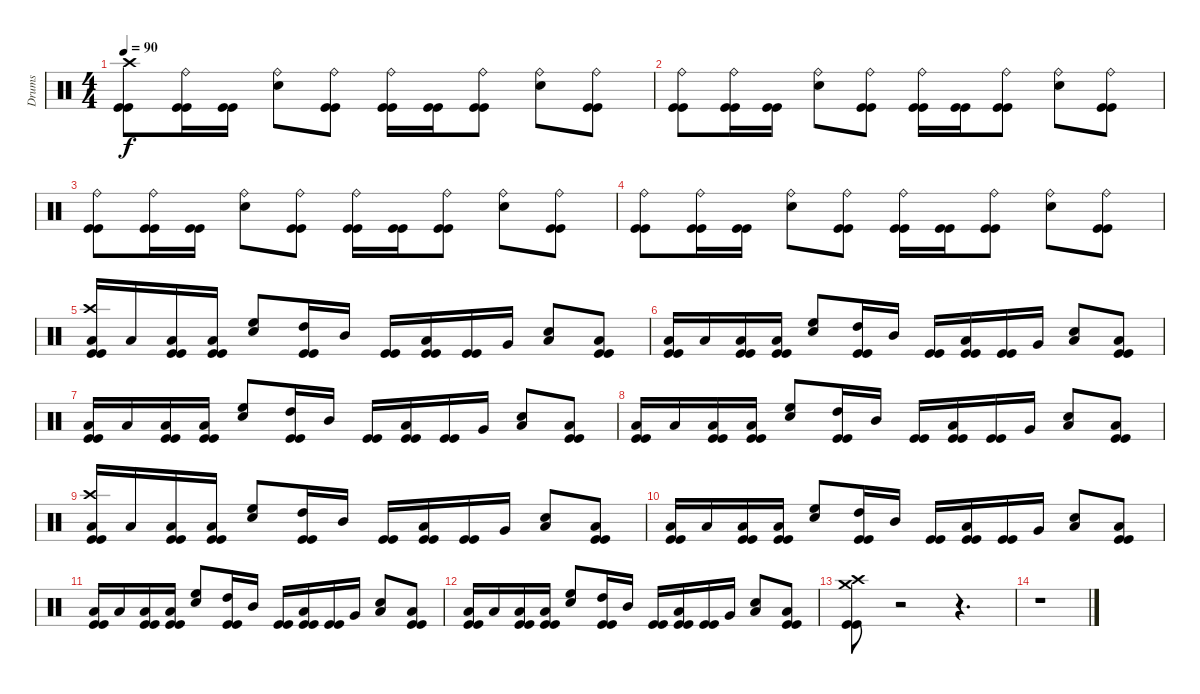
\track ("Drums" "Drums") {instrument percussion}
\staff {score}
\articulation defaults
\ts (4 4)
\tempo 90
\clef neutral
\ks c
("Kick (hit)" "Kick (hit)" "Crash high (hit)").8{dy f} ("Kick (hit)" "Kick (hit)" "Ride (bell)").16 ("Kick (hit)" "Kick (hit)").16 ("Snare (hit) 2" "Ride (bell)").8 ("Kick (hit)" "Kick (hit)" "Ride (bell)").8 ("Kick (hit)" "Kick (hit)" "Ride (bell)").16 ("Kick (hit)" "Kick (hit)").16 ("Kick (hit)" "Kick (hit)" "Ride (bell)").8 ("Snare (hit) 2" "Ride (bell)").8 ("Kick (hit)" "Kick (hit)" "Ride (bell)").8 |
("Kick (hit)" "Kick (hit)" "Ride (bell)").8 ("Kick (hit)" "Kick (hit)" "Ride (bell)").16 ("Kick (hit)" "Kick (hit)").16 ("Snare (hit) 2" "Ride (bell)").8 ("Kick (hit)" "Kick (hit)" "Ride (bell)").8 ("Kick (hit)" "Kick (hit)" "Ride (bell)").16 ("Kick (hit)" "Kick (hit)").16 ("Kick (hit)" "Kick (hit)" "Ride (bell)").8 ("Snare (hit) 2" "Ride (bell)").8 ("Kick (hit)" "Kick (hit)" "Ride (bell)").8 |
("Kick (hit)" "Kick (hit)" "Ride (bell)").8 ("Kick (hit)" "Kick (hit)" "Ride (bell)").16 ("Kick (hit)" "Kick (hit)").16 ("Snare (hit) 2" "Ride (bell)").8 ("Kick (hit)" "Kick (hit)" "Ride (bell)").8 ("Kick (hit)" "Kick (hit)" "Ride (bell)").16 ("Kick (hit)" "Kick (hit)").16 ("Kick (hit)" "Kick (hit)" "Ride (bell)").8 ("Snare (hit) 2" "Ride (bell)").8 ("Kick (hit)" "Kick (hit)" "Ride (bell)").8 |
("Kick (hit)" "Kick (hit)" "Ride (bell)").8 ("Kick (hit)" "Kick (hit)" "Ride (bell)").16 ("Kick (hit)" "Kick (hit)").16 ("Snare (hit) 2" "Ride (bell)").8 ("Kick (hit)" "Kick (hit)" "Ride (bell)").8 ("Kick (hit)" "Kick (hit)" "Ride (bell)").16 ("Kick (hit)" "Kick (hit)").16 ("Kick (hit)" "Kick (hit)" "Ride (bell)").8 ("Snare (hit) 2" "Ride (bell)").8 ("Kick (hit)" "Kick (hit)" "Ride (bell)").8 |
("Kick (hit)" "Kick (hit)" "Low Floor Tom (hit)" "Crash high (hit)").16 "Low Floor Tom (hit)".16 ("Kick (hit)" "Kick (hit)" "Low Floor Tom (hit)").16 ("Kick (hit)" "Kick (hit)" "Low Floor Tom (hit)").16 ("Snare (hit) 2" "High Floor Tom (hit)").8 ("Kick (hit)" "Kick (hit)" "High Tom (hit)").16 "Mid Tom (hit)".16 ("Kick (hit)" "Kick (hit)").16 ("Kick (hit)" "Kick (hit)" "Low Tom (hit)").16 ("Kick (hit)" "Kick (hit)").16 "Very Low Tom (hit)".16 ("Snare (hit) 2" "Low Floor Tom (hit)").8 ("Kick (hit)" "Kick (hit)" "Low Floor Tom (hit)").8 |
("Kick (hit)" "Kick (hit)" "Low Floor Tom (hit)").16 "Low Floor Tom (hit)".16 ("Kick (hit)" "Kick (hit)" "Low Floor Tom (hit)").16 ("Kick (hit)" "Kick (hit)" "Low Floor Tom (hit)").16 ("Snare (hit) 2" "High Floor Tom (hit)").8 ("Kick (hit)" "Kick (hit)" "High Tom (hit)").16 "Mid Tom (hit)".16 ("Kick (hit)" "Kick (hit)").16 ("Kick (hit)" "Kick (hit)" "Low Tom (hit)").16 ("Kick (hit)" "Kick (hit)").16 "Very Low Tom (hit)".16 ("Snare (hit) 2" "Low Floor Tom (hit)").8 ("Kick (hit)" "Kick (hit)" "Low Floor Tom (hit)").8 |
("Kick (hit)" "Kick (hit)" "Low Floor Tom (hit)").16 "Low Floor Tom (hit)".16 ("Kick (hit)" "Kick (hit)" "Low Floor Tom (hit)").16 ("Kick (hit)" "Kick (hit)" "Low Floor Tom (hit)").16 ("Snare (hit) 2" "High Floor Tom (hit)").8 ("Kick (hit)" "Kick (hit)" "High Tom (hit)").16 "Mid Tom (hit)".16 ("Kick (hit)" "Kick (hit)").16 ("Kick (hit)" "Kick (hit)" "Low Tom (hit)").16 ("Kick (hit)" "Kick (hit)").16 "Very Low Tom (hit)".16 ("Snare (hit) 2" "Low Floor Tom (hit)").8 ("Kick (hit)" "Kick (hit)" "Low Floor Tom (hit)").8 |
("Kick (hit)" "Kick (hit)" "Low Floor Tom (hit)").16 "Low Floor Tom (hit)".16 ("Kick (hit)" "Kick (hit)" "Low Floor Tom (hit)").16 ("Kick (hit)" "Kick (hit)" "Low Floor Tom (hit)").16 ("Snare (hit) 2" "High Floor Tom (hit)").8 ("Kick (hit)" "Kick (hit)" "High Tom (hit)").16 "Mid Tom (hit)".16 ("Kick (hit)" "Kick (hit)").16 ("Kick (hit)" "Kick (hit)" "Low Tom (hit)").16 ("Kick (hit)" "Kick (hit)").16 "Very Low Tom (hit)".16 ("Snare (hit) 2" "Low Floor Tom (hit)").8 ("Kick (hit)" "Kick (hit)" "Low Floor Tom (hit)").8 |
("Kick (hit)" "Kick (hit)" "Low Floor Tom (hit)" "Crash high (hit)").16 "Low Floor Tom (hit)".16 ("Kick (hit)" "Kick (hit)" "Low Floor Tom (hit)").16 ("Kick (hit)" "Kick (hit)" "Low Floor Tom (hit)").16 ("Snare (hit) 2" "High Floor Tom (hit)").8 ("Kick (hit)" "Kick (hit)" "High Tom (hit)").16 "Mid Tom (hit)".16 ("Kick (hit)" "Kick (hit)").16 ("Kick (hit)" "Kick (hit)" "Low Tom (hit)").16 ("Kick (hit)" "Kick (hit)").16 "Very Low Tom (hit)".16 ("Snare (hit) 2" "Low Floor Tom (hit)").8 ("Kick (hit)" "Kick (hit)" "Low Floor Tom (hit)").8 |
("Kick (hit)" "Kick (hit)" "Low Floor Tom (hit)").16 "Low Floor Tom (hit)".16 ("Kick (hit)" "Kick (hit)" "Low Floor Tom (hit)").16 ("Kick (hit)" "Kick (hit)" "Low Floor Tom (hit)").16 ("Snare (hit) 2" "High Floor Tom (hit)").8 ("Kick (hit)" "Kick (hit)" "High Tom (hit)").16 "Mid Tom (hit)".16 ("Kick (hit)" "Kick (hit)").16 ("Kick (hit)" "Kick (hit)" "Low Tom (hit)").16 ("Kick (hit)" "Kick (hit)").16 "Very Low Tom (hit)".16 ("Snare (hit) 2" "Low Floor Tom (hit)").8 ("Kick (hit)" "Kick (hit)" "Low Floor Tom (hit)").8 |
("Kick (hit)" "Kick (hit)" "Low Floor Tom (hit)").16 "Low Floor Tom (hit)".16 ("Kick (hit)" "Kick (hit)" "Low Floor Tom (hit)").16 ("Kick (hit)" "Kick (hit)" "Low Floor Tom (hit)").16 ("Snare (hit) 2" "High Floor Tom (hit)").8 ("Kick (hit)" "Kick (hit)" "High Tom (hit)").16 "Mid Tom (hit)".16 ("Kick (hit)" "Kick (hit)").16 ("Kick (hit)" "Kick (hit)" "Low Tom (hit)").16 ("Kick (hit)" "Kick (hit)").16 "Very Low Tom (hit)".16 ("Snare (hit) 2" "Low Floor Tom (hit)").8 ("Kick (hit)" "Kick (hit)" "Low Floor Tom (hit)").8 |
("Kick (hit)" "Kick (hit)" "Low Floor Tom (hit)").16 "Low Floor Tom (hit)".16 ("Kick (hit)" "Kick (hit)" "Low Floor Tom (hit)").16 ("Kick (hit)" "Kick (hit)" "Low Floor Tom (hit)").16 ("Snare (hit) 2" "High Floor Tom (hit)").8 ("Kick (hit)" "Kick (hit)" "High Tom (hit)").16 "Mid Tom (hit)".16 ("Kick (hit)" "Kick (hit)").16 ("Kick (hit)" "Kick (hit)" "Low Tom (hit)").16 ("Kick (hit)" "Kick (hit)").16 "Very Low Tom (hit)".16 ("Snare (hit) 2" "Low Floor Tom (hit)").8 ("Kick (hit)" "Kick (hit)" "Low Floor Tom (hit)").8 |
("Kick (hit)" "Kick (hit)" "Crash high (hit)" "Crash medium (hit)").8 r.2 r.4{d} |
r.1
